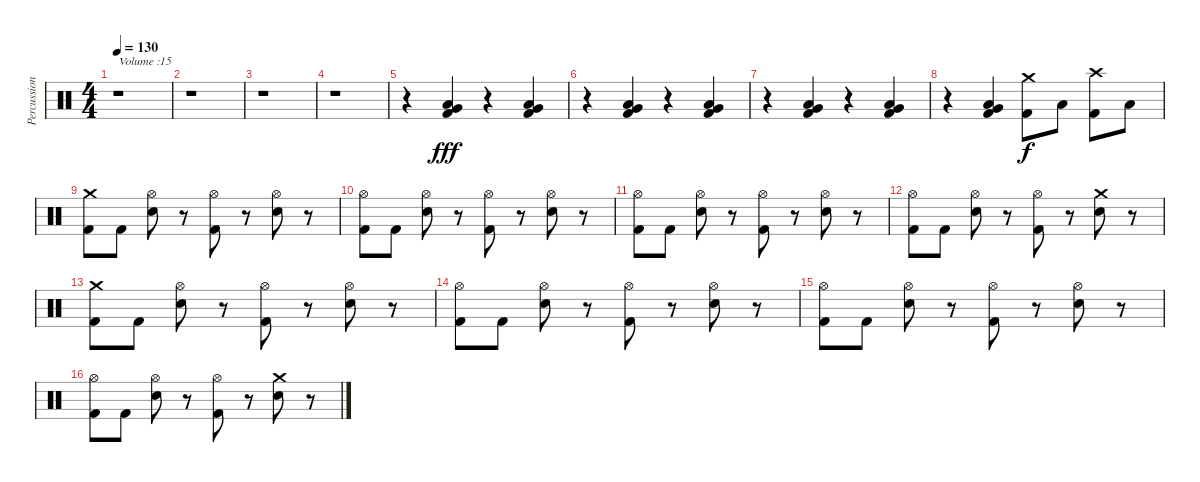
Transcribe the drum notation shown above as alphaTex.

\track ("Percussions" "Percussion") {instrument percussion}
\staff {score}
\articulation defaults
\ts (4 4)
\tempo 130
\clef neutral
\ks c
r.1{txt "Volume :15" dy fff} |
r.1 |
r.1 |
r.1 |
r.4 ("Very Low Tom (hit)" "Low Tom (hit)" "Kick (hit) 2").4 r.4 ("Very Low Tom (hit)" "Low Tom (hit)" "Kick (hit) 2").4 |
r.4 ("Very Low Tom (hit)" "Low Tom (hit)" "Kick (hit) 2").4 r.4 ("Very Low Tom (hit)" "Low Tom (hit)" "Kick (hit) 2").4 |
r.4 ("Very Low Tom (hit)" "Low Tom (hit)" "Kick (hit) 2").4 r.4 ("Very Low Tom (hit)" "Low Tom (hit)" "Kick (hit) 2").4 |
r.4 ("Very Low Tom (hit)" "Low Tom (hit)" "Kick (hit) 2").4 ("Crash medium (hit)" "Kick (hit) 2").8{dy f} "Low Tom (hit)".8 ("Crash high (hit)" "Kick (hit) 2").8 "Low Tom (hit)".8 |
("Crash medium (hit)" "Kick (hit) 2").8 "Kick (hit) 2".8 ("Hi-Hat (open)" "Electric Snare (hit)").8 r.8 ("Hi-Hat (open)" "Kick (hit) 2").8 r.8 ("Hi-Hat (open)" "Electric Snare (hit)").8 r.8 |
("Hi-Hat (open)" "Kick (hit) 2").8 "Kick (hit) 2".8 ("Hi-Hat (open)" "Electric Snare (hit)").8 r.8 ("Hi-Hat (open)" "Kick (hit) 2").8 r.8 ("Hi-Hat (open)" "Electric Snare (hit)").8 r.8 |
("Hi-Hat (open)" "Kick (hit) 2").8 "Kick (hit) 2".8 ("Hi-Hat (open)" "Electric Snare (hit)").8 r.8 ("Hi-Hat (open)" "Kick (hit) 2").8 r.8 ("Hi-Hat (open)" "Electric Snare (hit)").8 r.8 |
("Hi-Hat (open)" "Kick (hit) 2").8 "Kick (hit) 2".8 ("Hi-Hat (open)" "Electric Snare (hit)").8 r.8 ("Hi-Hat (open)" "Kick (hit) 2").8 r.8 ("Crash medium (hit)" "Electric Snare (hit)").8 r.8 |
("Crash medium (hit)" "Kick (hit) 2").8 "Kick (hit) 2".8 ("Hi-Hat (open)" "Electric Snare (hit)").8 r.8 ("Hi-Hat (open)" "Kick (hit) 2").8 r.8 ("Hi-Hat (open)" "Electric Snare (hit)").8 r.8 |
("Hi-Hat (open)" "Kick (hit) 2").8 "Kick (hit) 2".8 ("Hi-Hat (open)" "Electric Snare (hit)").8 r.8 ("Hi-Hat (open)" "Kick (hit) 2").8 r.8 ("Hi-Hat (open)" "Electric Snare (hit)").8 r.8 |
("Hi-Hat (open)" "Kick (hit) 2").8 "Kick (hit) 2".8 ("Hi-Hat (open)" "Electric Snare (hit)").8 r.8 ("Hi-Hat (open)" "Kick (hit) 2").8 r.8 ("Hi-Hat (open)" "Electric Snare (hit)").8 r.8 |
("Hi-Hat (open)" "Kick (hit) 2").8 "Kick (hit) 2".8 ("Hi-Hat (open)" "Electric Snare (hit)").8 r.8 ("Hi-Hat (open)" "Kick (hit) 2").8 r.8 ("Crash medium (hit)" "Electric Snare (hit)").8 r.8
